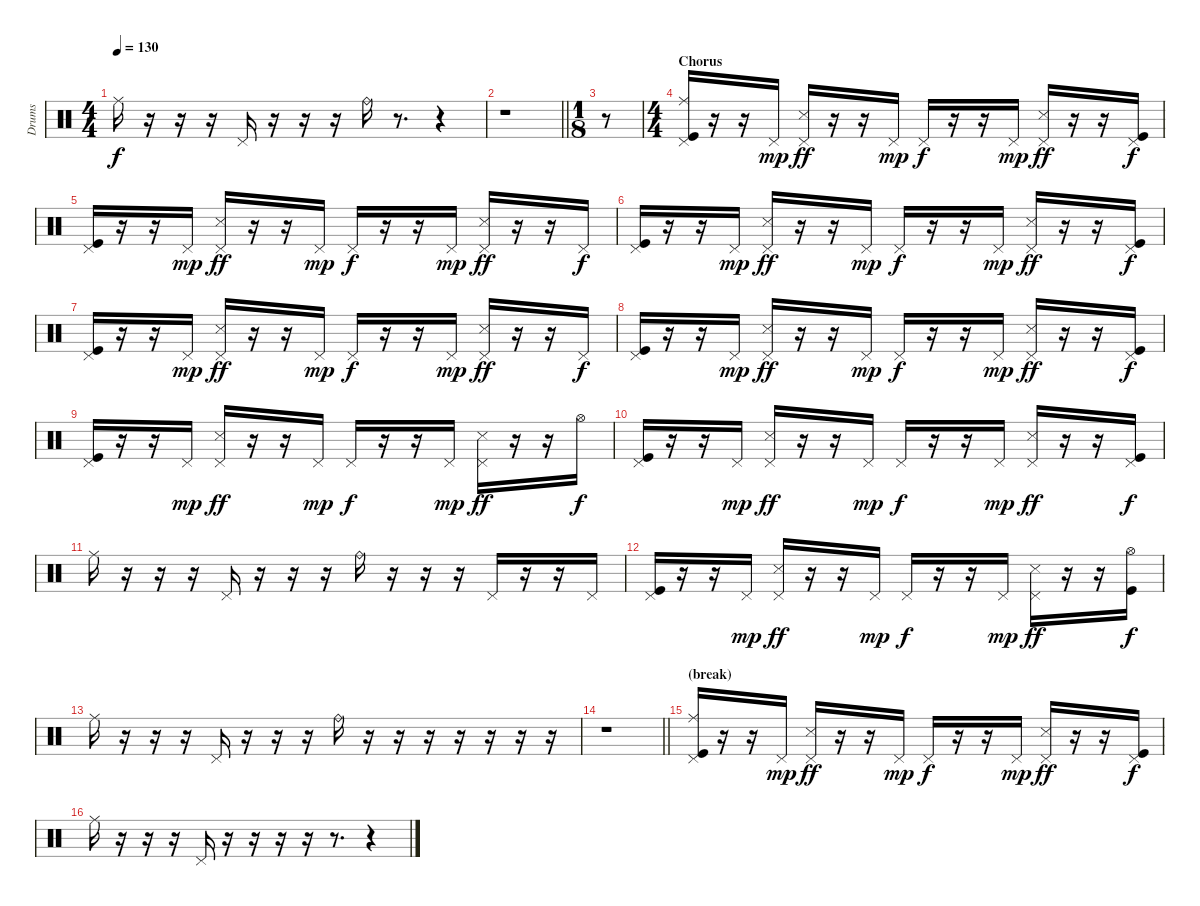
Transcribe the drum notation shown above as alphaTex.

\track ("Drums" "Drums") {instrument percussion}
\staff {score}
\articulation defaults
\ts (4 4)
\tempo 130
\clef neutral
\ks c "Ride (middle)".16{dy f}
r.16 r.16 r.16 "Pedal Hi-Hat (hit)".16 r.16 r.16 r.16 "Ride (bell)".16 r.8{d} r.4 |
\barLineRight lightlight
r.1 |
\ts (1 8)
r.8 |
\ts (4 4)
\section ("" "Chorus")
("Pedal Hi-Hat (hit)" "Ride (middle)" "Kick (hit)").16 r.16 r.16 "Pedal Hi-Hat (hit)".16{dy mp} ("Pedal Hi-Hat (hit)" "Snare (side stick) 3").16{dy ff} r.16 r.16 "Pedal Hi-Hat (hit)".16{dy mp} "Pedal Hi-Hat (hit)".16{dy f} r.16 r.16 "Pedal Hi-Hat (hit)".16{dy mp} ("Pedal Hi-Hat (hit)" "Snare (side stick) 3").16{dy ff} r.16 r.16 ("Pedal Hi-Hat (hit)" "Kick (hit)").16{dy f} |
("Pedal Hi-Hat (hit)" "Kick (hit)").16 r.16 r.16 "Pedal Hi-Hat (hit)".16{dy mp} ("Pedal Hi-Hat (hit)" "Snare (side stick) 3").16{dy ff} r.16 r.16 "Pedal Hi-Hat (hit)".16{dy mp} "Pedal Hi-Hat (hit)".16{dy f} r.16 r.16 "Pedal Hi-Hat (hit)".16{dy mp} ("Pedal Hi-Hat (hit)" "Snare (side stick) 3").16{dy ff} r.16 r.16 "Pedal Hi-Hat (hit)".16{dy f} |
("Pedal Hi-Hat (hit)" "Kick (hit)").16 r.16 r.16 "Pedal Hi-Hat (hit)".16{dy mp} ("Pedal Hi-Hat (hit)" "Snare (side stick) 3").16{dy ff} r.16 r.16 "Pedal Hi-Hat (hit)".16{dy mp} "Pedal Hi-Hat (hit)".16{dy f} r.16 r.16 "Pedal Hi-Hat (hit)".16{dy mp} ("Pedal Hi-Hat (hit)" "Snare (side stick) 3").16{dy ff} r.16 r.16 ("Pedal Hi-Hat (hit)" "Kick (hit)").16{dy f} |
("Pedal Hi-Hat (hit)" "Kick (hit)").16 r.16 r.16 "Pedal Hi-Hat (hit)".16{dy mp} ("Pedal Hi-Hat (hit)" "Snare (side stick) 3").16{dy ff} r.16 r.16 "Pedal Hi-Hat (hit)".16{dy mp} "Pedal Hi-Hat (hit)".16{dy f} r.16 r.16 "Pedal Hi-Hat (hit)".16{dy mp} ("Pedal Hi-Hat (hit)" "Snare (side stick) 3").16{dy ff} r.16 r.16 "Pedal Hi-Hat (hit)".16{dy f} |
("Pedal Hi-Hat (hit)" "Kick (hit)").16 r.16 r.16 "Pedal Hi-Hat (hit)".16{dy mp} ("Pedal Hi-Hat (hit)" "Snare (side stick) 3").16{dy ff} r.16 r.16 "Pedal Hi-Hat (hit)".16{dy mp} "Pedal Hi-Hat (hit)".16{dy f} r.16 r.16 "Pedal Hi-Hat (hit)".16{dy mp} ("Pedal Hi-Hat (hit)" "Snare (side stick) 3").16{dy ff} r.16 r.16 ("Pedal Hi-Hat (hit)" "Kick (hit)").16{dy f} |
("Pedal Hi-Hat (hit)" "Kick (hit)").16 r.16 r.16 "Pedal Hi-Hat (hit)".16{dy mp} ("Pedal Hi-Hat (hit)" "Snare (side stick) 3").16{dy ff} r.16 r.16 "Pedal Hi-Hat (hit)".16{dy mp} "Pedal Hi-Hat (hit)".16{dy f} r.16 r.16 "Pedal Hi-Hat (hit)".16{dy mp} ("Pedal Hi-Hat (hit)" "Snare (side stick) 3").16{dy ff} r.16 r.16 "Hi-Hat (open)".16{dy f} |
("Pedal Hi-Hat (hit)" "Kick (hit)").16 r.16 r.16 "Pedal Hi-Hat (hit)".16{dy mp} ("Pedal Hi-Hat (hit)" "Snare (side stick) 3").16{dy ff} r.16 r.16 "Pedal Hi-Hat (hit)".16{dy mp} "Pedal Hi-Hat (hit)".16{dy f} r.16 r.16 "Pedal Hi-Hat (hit)".16{dy mp} ("Pedal Hi-Hat (hit)" "Snare (side stick) 3").16{dy ff} r.16 r.16 ("Pedal Hi-Hat (hit)" "Kick (hit)").16{dy f} |
"Ride (middle)".16 r.16 r.16 r.16 "Pedal Hi-Hat (hit)".16 r.16 r.16 r.16 "Ride (bell)".16 r.16 r.16 r.16 "Pedal Hi-Hat (hit)".16 r.16 r.16 "Pedal Hi-Hat (hit)".16 |
("Pedal Hi-Hat (hit)" "Kick (hit)").16 r.16 r.16 "Pedal Hi-Hat (hit)".16{dy mp} ("Pedal Hi-Hat (hit)" "Snare (side stick) 3").16{dy ff} r.16 r.16 "Pedal Hi-Hat (hit)".16{dy mp} "Pedal Hi-Hat (hit)".16{dy f} r.16 r.16 "Pedal Hi-Hat (hit)".16{dy mp} ("Pedal Hi-Hat (hit)" "Snare (side stick) 3").16{dy ff} r.16 r.16 ("Hi-Hat (open)" "Kick (hit)").16{dy f} |
"Ride (middle)".16 r.16 r.16 r.16 "Pedal Hi-Hat (hit)".16 r.16 r.16 r.16 "Ride (bell)".16 r.16 r.16 r.16 r.16 r.16 r.16 r.16 |
\barLineRight lightlight
r.1 |
\section ("" "(break)")
("Pedal Hi-Hat (hit)" "Ride (middle)" "Kick (hit)").16 r.16 r.16 "Pedal Hi-Hat (hit)".16{dy mp} ("Pedal Hi-Hat (hit)" "Snare (side stick) 3").16{dy ff} r.16 r.16 "Pedal Hi-Hat (hit)".16{dy mp} "Pedal Hi-Hat (hit)".16{dy f} r.16 r.16 "Pedal Hi-Hat (hit)".16{dy mp} ("Pedal Hi-Hat (hit)" "Snare (side stick) 3").16{dy ff} r.16 r.16 ("Pedal Hi-Hat (hit)" "Kick (hit)").16{dy f} |
"Ride (middle)".16 r.16 r.16 r.16 "Pedal Hi-Hat (hit)".16 r.16 r.16 r.16 r.16 r.8{d} r.4
